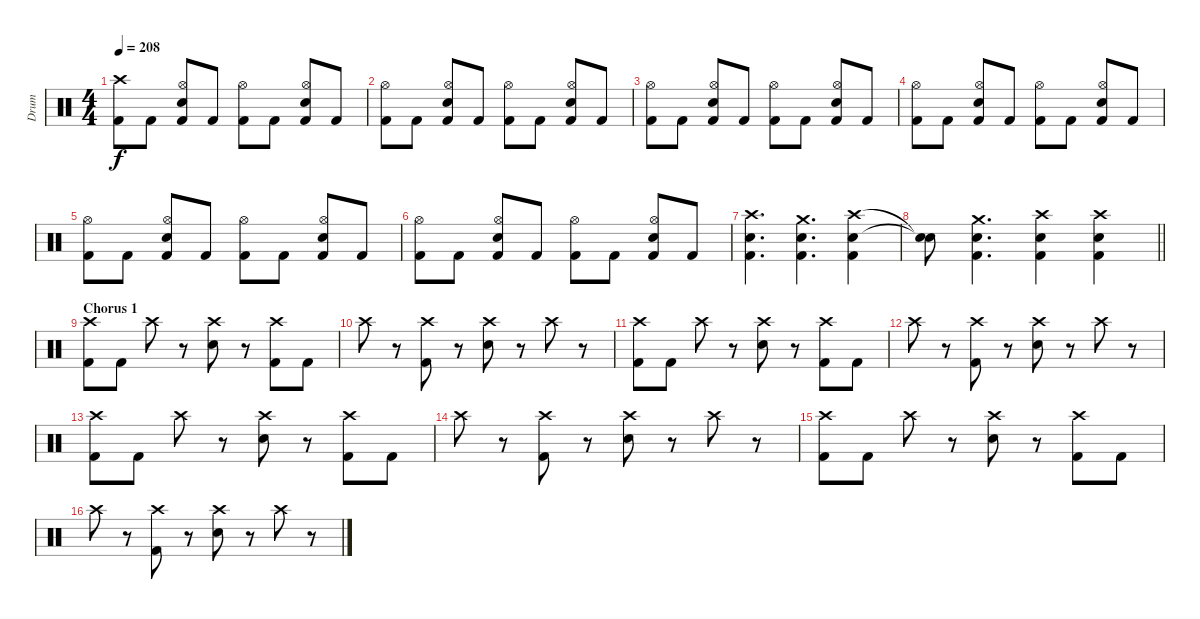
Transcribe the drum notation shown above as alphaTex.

\track ("Drum" "Drum") {instrument percussion}
\staff {score}
\articulation defaults
\ts (4 4)
\tempo 208
\clef neutral
\ks c
("Crash high (hit)" "Kick (hit) 2").8{dy f} "Kick (hit) 2".8 ("Hi-Hat (open)" "Electric Snare (hit)" "Kick (hit) 2").8 "Kick (hit) 2".8 ("Hi-Hat (open)" "Kick (hit) 2").8 "Kick (hit) 2".8 ("Hi-Hat (open)" "Electric Snare (hit)" "Kick (hit) 2").8 "Kick (hit) 2".8 |
("Hi-Hat (open)" "Kick (hit) 2").8 "Kick (hit) 2".8 ("Hi-Hat (open)" "Electric Snare (hit)" "Kick (hit) 2").8 "Kick (hit) 2".8 ("Hi-Hat (open)" "Kick (hit) 2").8 "Kick (hit) 2".8 ("Hi-Hat (open)" "Electric Snare (hit)" "Kick (hit) 2").8 "Kick (hit) 2".8 |
("Hi-Hat (open)" "Kick (hit) 2").8 "Kick (hit) 2".8 ("Hi-Hat (open)" "Electric Snare (hit)" "Kick (hit) 2").8 "Kick (hit) 2".8 ("Hi-Hat (open)" "Kick (hit) 2").8 "Kick (hit) 2".8 ("Hi-Hat (open)" "Electric Snare (hit)" "Kick (hit) 2").8 "Kick (hit) 2".8 |
("Hi-Hat (open)" "Kick (hit) 2").8 "Kick (hit) 2".8 ("Hi-Hat (open)" "Electric Snare (hit)" "Kick (hit) 2").8 "Kick (hit) 2".8 ("Hi-Hat (open)" "Kick (hit) 2").8 "Kick (hit) 2".8 ("Hi-Hat (open)" "Electric Snare (hit)" "Kick (hit) 2").8 "Kick (hit) 2".8 |
("Hi-Hat (open)" "Kick (hit) 2").8 "Kick (hit) 2".8 ("Hi-Hat (open)" "Electric Snare (hit)" "Kick (hit) 2").8 "Kick (hit) 2".8 ("Hi-Hat (open)" "Kick (hit) 2").8 "Kick (hit) 2".8 ("Hi-Hat (open)" "Electric Snare (hit)" "Kick (hit) 2").8 "Kick (hit) 2".8 |
("Hi-Hat (open)" "Kick (hit) 2").8 "Kick (hit) 2".8 ("Hi-Hat (open)" "Electric Snare (hit)" "Kick (hit) 2").8 "Kick (hit) 2".8 ("Hi-Hat (open)" "Kick (hit) 2").8 "Kick (hit) 2".8 ("Hi-Hat (open)" "Electric Snare (hit)" "Kick (hit) 2").8 "Kick (hit) 2".8 |
("Crash high (hit)" "Electric Snare (hit)" "Kick (hit) 2").4{d} ("Crash medium (hit)" "Electric Snare (hit)" "Kick (hit) 2").4{d} ("Crash high (hit)" "Electric Snare (hit)" "Kick (hit) 2").4 |
\barLineRight lightlight
("Snare (hit)"{t} "Snare (hit)"{t}).8 ("Crash medium (hit)" "Electric Snare (hit)" "Kick (hit) 2").4{d} ("Crash high (hit)" "Electric Snare (hit)" "Kick (hit) 2").4 ("Crash high (hit)" "Electric Snare (hit)" "Kick (hit) 2").4 |
\section ("" "Chorus 1")
("Crash high (hit)" "Kick (hit) 2").8 "Kick (hit) 2".8 "Crash high (hit)".8 r.8 ("Crash high (hit)" "Electric Snare (hit)").8 r.8 ("Crash high (hit)" "Kick (hit) 2").8 "Kick (hit) 2".8 |
"Crash high (hit)".8 r.8 ("Crash high (hit)" "Kick (hit) 2").8 r.8 ("Crash high (hit)" "Electric Snare (hit)").8 r.8 "Crash high (hit)".8 r.8 |
("Crash high (hit)" "Kick (hit) 2").8 "Kick (hit) 2".8 "Crash high (hit)".8 r.8 ("Crash high (hit)" "Electric Snare (hit)").8 r.8 ("Crash high (hit)" "Kick (hit) 2").8 "Kick (hit) 2".8 |
"Crash high (hit)".8 r.8 ("Crash high (hit)" "Kick (hit) 2").8 r.8 ("Crash high (hit)" "Electric Snare (hit)").8 r.8 "Crash high (hit)".8 r.8 |
("Crash high (hit)" "Kick (hit) 2").8 "Kick (hit) 2".8 "Crash high (hit)".8 r.8 ("Crash high (hit)" "Electric Snare (hit)").8 r.8 ("Crash high (hit)" "Kick (hit) 2").8 "Kick (hit) 2".8 |
"Crash high (hit)".8 r.8 ("Crash high (hit)" "Kick (hit) 2").8 r.8 ("Crash high (hit)" "Electric Snare (hit)").8 r.8 "Crash high (hit)".8 r.8 |
("Crash high (hit)" "Kick (hit) 2").8 "Kick (hit) 2".8 "Crash high (hit)".8 r.8 ("Crash high (hit)" "Electric Snare (hit)").8 r.8 ("Crash high (hit)" "Kick (hit) 2").8 "Kick (hit) 2".8 |
"Crash high (hit)".8 r.8 ("Crash high (hit)" "Kick (hit) 2").8 r.8 ("Crash high (hit)" "Electric Snare (hit)").8 r.8 "Crash high (hit)".8 r.8
